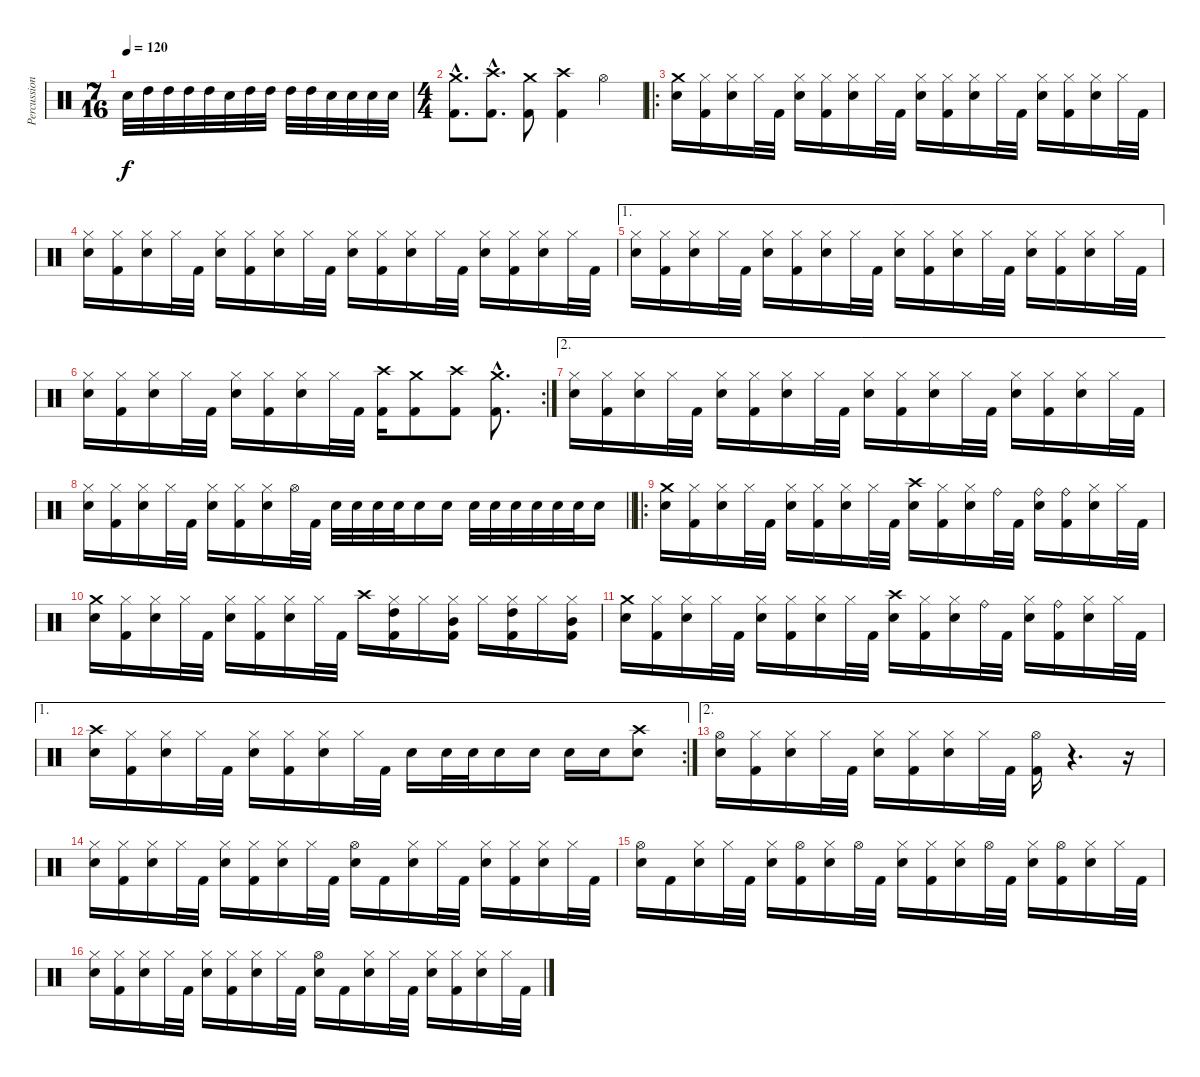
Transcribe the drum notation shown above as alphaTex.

\track ("Percussion" "Percussion") {instrument percussion}
\staff {score}
\articulation defaults
\ts (7 16)
\tempo 120
\clef neutral
\ks c "Electric Snare (hit)".32{dy f} "High Tom (hit)".32 "High Tom (hit)".32 "High Tom (hit)".32 "High Tom (hit)".32 "Electric Snare (hit)".32 "High Tom (hit)".32 "High Tom (hit)".32 "High Tom (hit)".32 "High Tom (hit)".32 "Electric Snare (hit)".32 "Electric Snare (hit)".32 "Electric Snare (hit)".32 "Electric Snare (hit)".32
|
\ts (4 4)
("Crash medium (hit)"{hac} "Kick (hit) 2"{hac}).8{d} ("Crash high (hit)"{hac} "Kick (hit) 2"{hac}).8{d} ("Crash medium (hit)" "Kick (hit) 2").8 ("Crash high (hit)" "Kick (hit) 2").4 "Hi-Hat (open)".4 |
\ro
("Crash medium (hit)" "Electric Snare (hit)").16 ("Hi-Hat (closed)" "Kick (hit) 2").16 ("Hi-Hat (closed)" "Electric Snare (hit)").16 "Hi-Hat (closed)".32 "Kick (hit) 2".32 ("Hi-Hat (closed)" "Electric Snare (hit)").16 ("Hi-Hat (closed)" "Kick (hit) 2").16 ("Hi-Hat (closed)" "Electric Snare (hit)").16 "Hi-Hat (closed)".32 "Kick (hit) 2".32 ("Hi-Hat (closed)" "Electric Snare (hit)").16 ("Hi-Hat (closed)" "Kick (hit) 2").16 ("Hi-Hat (closed)" "Electric Snare (hit)").16 "Hi-Hat (closed)".32 "Kick (hit) 2".32 ("Hi-Hat (closed)" "Electric Snare (hit)").16 ("Hi-Hat (closed)" "Kick (hit) 2").16 ("Hi-Hat (closed)" "Electric Snare (hit)").16 "Hi-Hat (closed)".32 "Kick (hit) 2".32 |
("Hi-Hat (closed)" "Electric Snare (hit)").16 ("Hi-Hat (closed)" "Kick (hit) 2").16 ("Hi-Hat (closed)" "Electric Snare (hit)").16 "Hi-Hat (closed)".32 "Kick (hit) 2".32 ("Hi-Hat (closed)" "Electric Snare (hit)").16 ("Hi-Hat (closed)" "Kick (hit) 2").16 ("Hi-Hat (closed)" "Electric Snare (hit)").16 "Hi-Hat (closed)".32 "Kick (hit) 2".32 ("Hi-Hat (closed)" "Electric Snare (hit)").16 ("Hi-Hat (closed)" "Kick (hit) 2").16 ("Hi-Hat (closed)" "Electric Snare (hit)").16 "Hi-Hat (closed)".32 "Kick (hit) 2".32 ("Hi-Hat (closed)" "Electric Snare (hit)").16 ("Hi-Hat (closed)" "Kick (hit) 2").16 ("Hi-Hat (closed)" "Electric Snare (hit)").16 "Hi-Hat (closed)".32 "Kick (hit) 2".32 |
\ae 1
("Hi-Hat (closed)" "Electric Snare (hit)").16 ("Hi-Hat (closed)" "Kick (hit) 2").16 ("Hi-Hat (closed)" "Electric Snare (hit)").16 "Hi-Hat (closed)".32 "Kick (hit) 2".32 ("Hi-Hat (closed)" "Electric Snare (hit)").16 ("Hi-Hat (closed)" "Kick (hit) 2").16 ("Hi-Hat (closed)" "Electric Snare (hit)").16 "Hi-Hat (closed)".32 "Kick (hit) 2".32 ("Hi-Hat (closed)" "Electric Snare (hit)").16 ("Hi-Hat (closed)" "Kick (hit) 2").16 ("Hi-Hat (closed)" "Electric Snare (hit)").16 "Hi-Hat (closed)".32 "Kick (hit) 2".32 ("Hi-Hat (closed)" "Electric Snare (hit)").16 ("Hi-Hat (closed)" "Kick (hit) 2").16 ("Hi-Hat (closed)" "Electric Snare (hit)").16 "Hi-Hat (closed)".32 "Kick (hit) 2".32 |
\rc 2
("Hi-Hat (closed)" "Electric Snare (hit)").16 ("Hi-Hat (closed)" "Kick (hit) 2").16 ("Hi-Hat (closed)" "Electric Snare (hit)").16 "Hi-Hat (closed)".32 "Kick (hit) 2".32 ("Hi-Hat (closed)" "Electric Snare (hit)").16 ("Hi-Hat (closed)" "Kick (hit) 2").16 ("Hi-Hat (closed)" "Electric Snare (hit)").16 "Hi-Hat (closed)".32 "Kick (hit) 2".32 ("Crash high (hit)" "Kick (hit) 2").16 ("Crash medium (hit)" "Kick (hit) 2").8 ("Crash high (hit)" "Kick (hit) 2").8 ("Crash medium (hit)"{hac} "Kick (hit) 2"{hac}).8{d} |
\ae 2
("Hi-Hat (closed)" "Electric Snare (hit)").16 ("Hi-Hat (closed)" "Kick (hit) 2").16 ("Hi-Hat (closed)" "Electric Snare (hit)").16 "Hi-Hat (closed)".32 "Kick (hit) 2".32 ("Hi-Hat (closed)" "Electric Snare (hit)").16 ("Hi-Hat (closed)" "Kick (hit) 2").16 ("Hi-Hat (closed)" "Electric Snare (hit)").16 "Hi-Hat (closed)".32 "Kick (hit) 2".32 ("Hi-Hat (closed)" "Electric Snare (hit)").16 ("Hi-Hat (closed)" "Kick (hit) 2").16 ("Hi-Hat (closed)" "Electric Snare (hit)").16 "Hi-Hat (closed)".32 "Kick (hit) 2".32 ("Hi-Hat (closed)" "Electric Snare (hit)").16 ("Hi-Hat (closed)" "Kick (hit) 2").16 ("Hi-Hat (closed)" "Electric Snare (hit)").16 "Hi-Hat (closed)".32 "Kick (hit) 2".32 |
\barLineRight lightlight
("Hi-Hat (closed)" "Electric Snare (hit)").16 ("Hi-Hat (closed)" "Kick (hit) 2").16 ("Hi-Hat (closed)" "Electric Snare (hit)").16 "Hi-Hat (closed)".32 "Kick (hit) 2".32 ("Hi-Hat (closed)" "Electric Snare (hit)").16 ("Hi-Hat (closed)" "Kick (hit) 2").16 ("Hi-Hat (closed)" "Electric Snare (hit)").16 "Hi-Hat (open)".32 "Kick (hit) 2".32 "Electric Snare (hit)".32 "Electric Snare (hit)".32 "Electric Snare (hit)".32 "Electric Snare (hit)".32 "Electric Snare (hit)".16 "Electric Snare (hit)".16 "Electric Snare (hit)".32 "Electric Snare (hit)".32 "Electric Snare (hit)".32 "Electric Snare (hit)".32 "Electric Snare (hit)".32 "Electric Snare (hit)".32 "Electric Snare (hit)".16 |
\ro
("Crash medium (hit)" "Electric Snare (hit)").16 ("Hi-Hat (closed)" "Kick (hit) 2").16 ("Hi-Hat (closed)" "Electric Snare (hit)").16 "Hi-Hat (closed)".32 "Kick (hit) 2".32 ("Hi-Hat (closed)" "Electric Snare (hit)").16 ("Hi-Hat (closed)" "Kick (hit) 2").16 ("Hi-Hat (closed)" "Electric Snare (hit)").16 "Hi-Hat (closed)".32 "Kick (hit) 2".32 ("Crash high (hit)" "Electric Snare (hit)").16 ("Hi-Hat (closed)" "Kick (hit) 2").16 ("Hi-Hat (closed)" "Electric Snare (hit)").16 "Ride (bell)".32 "Kick (hit) 2".32 ("Ride (bell)" "Electric Snare (hit)").16 ("Ride (bell)" "Kick (hit) 2").16 ("Hi-Hat (closed)" "Electric Snare (hit)").16 "Hi-Hat (closed)".32 "Kick (hit) 2".32 |
("Crash medium (hit)" "Electric Snare (hit)").16 ("Hi-Hat (closed)" "Kick (hit) 2").16 ("Hi-Hat (closed)" "Electric Snare (hit)").16 "Hi-Hat (closed)".32 "Kick (hit) 2".32 ("Hi-Hat (closed)" "Electric Snare (hit)").16 ("Hi-Hat (closed)" "Kick (hit) 2").16 ("Hi-Hat (closed)" "Electric Snare (hit)").16 "Hi-Hat (closed)".32 "Kick (hit) 2".32 "Crash high (hit)".16 ("Hi-Hat (closed)" "High Tom (hit)" "Kick (hit) 2").16 "Hi-Hat (closed)".16 ("Hi-Hat (closed)" "Mid Tom (hit)" "Kick (hit) 2").16 "Hi-Hat (closed)".16 ("Hi-Hat (closed)" "High Tom (hit)" "Kick (hit) 2").16 "Hi-Hat (closed)".16 ("Hi-Hat (closed)" "Mid Tom (hit)" "Kick (hit) 2").16 |
("Crash medium (hit)" "Electric Snare (hit)").16 ("Hi-Hat (closed)" "Kick (hit) 2").16 ("Hi-Hat (closed)" "Electric Snare (hit)").16 "Hi-Hat (closed)".32 "Kick (hit) 2".32 ("Hi-Hat (closed)" "Electric Snare (hit)").16 ("Hi-Hat (closed)" "Kick (hit) 2").16 ("Hi-Hat (closed)" "Electric Snare (hit)").16 "Hi-Hat (closed)".32 "Kick (hit) 2".32 ("Crash high (hit)" "Electric Snare (hit)").16 ("Hi-Hat (closed)" "Kick (hit) 2").16 ("Hi-Hat (closed)" "Electric Snare (hit)").16 "Ride (bell)".32 "Kick (hit) 2".32 ("Hi-Hat (closed)" "Electric Snare (hit)").16 ("Ride (bell)" "Kick (hit) 2").16 ("Hi-Hat (closed)" "Electric Snare (hit)").16 "Hi-Hat (closed)".32 "Kick (hit) 2".32 |
\ae 1
\rc 2
("Crash high (hit)" "Electric Snare (hit)").16 ("Hi-Hat (closed)" "Kick (hit) 2").16 ("Hi-Hat (closed)" "Electric Snare (hit)").16 "Hi-Hat (closed)".32 "Kick (hit) 2".32 ("Hi-Hat (closed)" "Electric Snare (hit)").16 ("Hi-Hat (closed)" "Kick (hit) 2").16 ("Hi-Hat (closed)" "Electric Snare (hit)").16 "Hi-Hat (closed)".32 "Kick (hit) 2".32 "Electric Snare (hit)".16 "Electric Snare (hit)".32 "Electric Snare (hit)".32 "Electric Snare (hit)".16 "Electric Snare (hit)".16 "Electric Snare (hit)".16 "Electric Snare (hit)".16 ("Crash high (hit)" "Electric Snare (hit)").8 |
\ae 2
("Hi-Hat (open)" "Electric Snare (hit)").16 ("Hi-Hat (closed)" "Kick (hit) 2").16 ("Hi-Hat (closed)" "Electric Snare (hit)").16 "Hi-Hat (closed)".32 "Kick (hit) 2".32 ("Hi-Hat (closed)" "Electric Snare (hit)").16 ("Hi-Hat (closed)" "Kick (hit) 2").16 ("Hi-Hat (closed)" "Electric Snare (hit)").16 "Hi-Hat (closed)".32 "Kick (hit) 2".32 ("Hi-Hat (open)" "Kick (hit) 2").16 r.4{d} r.16 |
("Hi-Hat (closed)" "Electric Snare (hit)").16 ("Hi-Hat (closed)" "Kick (hit) 2").16 ("Hi-Hat (closed)" "Electric Snare (hit)").16 "Hi-Hat (closed)".32 "Kick (hit) 2".32 ("Hi-Hat (closed)" "Electric Snare (hit)").16 ("Hi-Hat (closed)" "Kick (hit) 2").16 ("Hi-Hat (closed)" "Electric Snare (hit)").16 "Hi-Hat (closed)".32 "Kick (hit) 2".32 ("Hi-Hat (open)" "Electric Snare (hit)").16 "Kick (hit) 2".16 ("Hi-Hat (closed)" "Electric Snare (hit)").16 "Hi-Hat (closed)".32 "Kick (hit) 2".32 ("Hi-Hat (closed)" "Electric Snare (hit)").16 ("Hi-Hat (closed)" "Kick (hit) 2").16 ("Hi-Hat (closed)" "Electric Snare (hit)").16 "Hi-Hat (closed)".32 "Kick (hit) 2".32 |
("Hi-Hat (open)" "Electric Snare (hit)").16 "Kick (hit) 2".16 ("Hi-Hat (closed)" "Electric Snare (hit)").16 "Hi-Hat (closed)".32 "Kick (hit) 2".32 ("Hi-Hat (closed)" "Electric Snare (hit)").16 ("Hi-Hat (open)" "Kick (hit) 2").16 ("Hi-Hat (closed)" "Electric Snare (hit)").16 "Hi-Hat (open)".32 "Kick (hit) 2".32 ("Hi-Hat (closed)" "Electric Snare (hit)").16 ("Hi-Hat (closed)" "Kick (hit) 2").16 ("Hi-Hat (closed)" "Electric Snare (hit)").16 "Hi-Hat (open)".32 "Kick (hit) 2".32 ("Hi-Hat (closed)" "Electric Snare (hit)").16 ("Hi-Hat (open)" "Kick (hit) 2").16 ("Hi-Hat (closed)" "Electric Snare (hit)").16 "Hi-Hat (closed)".32 "Kick (hit) 2".32 |
("Hi-Hat (closed)" "Electric Snare (hit)").16 ("Hi-Hat (closed)" "Kick (hit) 2").16 ("Hi-Hat (closed)" "Electric Snare (hit)").16 "Hi-Hat (closed)".32 "Kick (hit) 2".32 ("Hi-Hat (closed)" "Electric Snare (hit)").16 ("Hi-Hat (closed)" "Kick (hit) 2").16 ("Hi-Hat (closed)" "Electric Snare (hit)").16 "Hi-Hat (closed)".32 "Kick (hit) 2".32 ("Hi-Hat (open)" "Electric Snare (hit)").16 "Kick (hit) 2".16 ("Hi-Hat (closed)" "Electric Snare (hit)").16 "Hi-Hat (closed)".32 "Kick (hit) 2".32 ("Hi-Hat (closed)" "Electric Snare (hit)").16 ("Hi-Hat (closed)" "Kick (hit) 2").16 ("Hi-Hat (closed)" "Electric Snare (hit)").16 "Hi-Hat (closed)".32 "Kick (hit) 2".32
